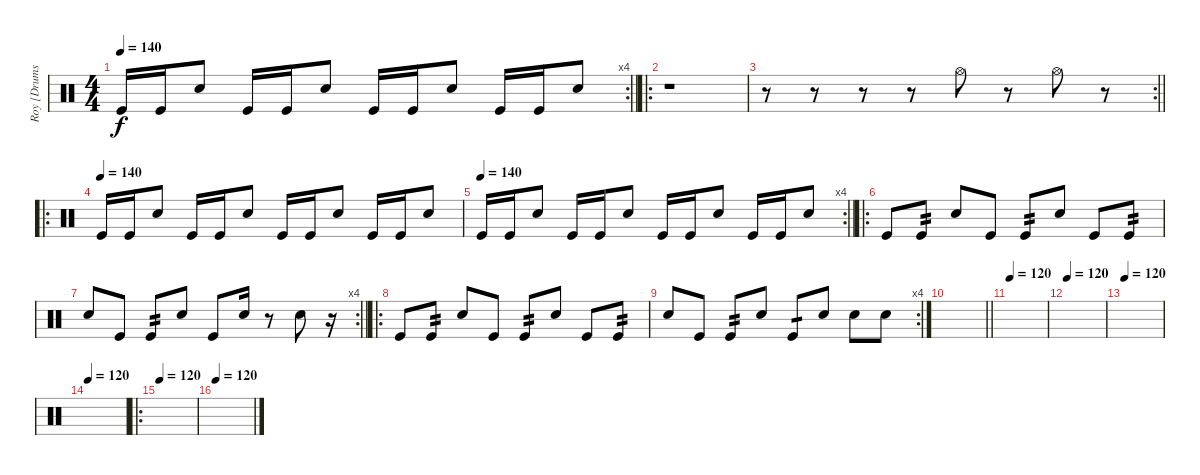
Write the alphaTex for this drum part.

\track ("Roy [Drums]" "Roy [Drums") {instrument percussion}
\staff {score}
\articulation defaults
\rc 4
\ts (4 4)
\tempo 140
\clef neutral
\barLineRight lightlight
\ks c "Kick (hit)".16{dy f} "Kick (hit)".16 "Electric Snare (hit)".8 "Kick (hit)".16 "Kick (hit)".16 "Electric Snare (hit)".8 "Kick (hit)".16 "Kick (hit)".16 "Electric Snare (hit)".8 "Kick (hit)".16 "Kick (hit)".16 "Electric Snare (hit)".8
|
\ro
\section ("" "")
r.1 |
\rc 2
\barLineRight lightlight
r.8 r.8 r.8 r.8 "Hi-Hat (open)".8 r.8 "Hi-Hat (open)".8 r.8 |
\ro
\section ("" "")
\tempo (140)
"Kick (hit)".16 "Kick (hit)".16 "Electric Snare (hit)".8 "Kick (hit)".16 "Kick (hit)".16 "Electric Snare (hit)".8 "Kick (hit)".16 "Kick (hit)".16 "Electric Snare (hit)".8 "Kick (hit)".16 "Kick (hit)".16 "Electric Snare (hit)".8 |
\rc 4
\tempo 140
\barLineRight lightlight "Kick (hit)".16 "Kick (hit)".16 "Electric Snare (hit)".8 "Kick (hit)".16 "Kick (hit)".16 "Electric Snare (hit)".8 "Kick (hit)".16 "Kick (hit)".16 "Electric Snare (hit)".8 "Kick (hit)".16 "Kick (hit)".16 "Electric Snare (hit)".8
|
\ro
\section ("" "")
"Kick (hit)".8 "Kick (hit)".8{tp 2} "Electric Snare (hit)".8 "Kick (hit)".8 "Kick (hit)".8{tp 2} "Electric Snare (hit)".8 "Kick (hit)".8 "Kick (hit)".8{tp 2} |
\rc 4
\barLineRight lightlight "Electric Snare (hit)".8 "Kick (hit)".8 "Kick (hit)".8{tp 2} "Electric Snare (hit)".8 "Kick (hit)".8 "Electric Snare (hit)".16
r.8 "Electric Snare (hit)".8 r.16 |
\ro
\section ("" "")
"Kick (hit)".8 "Kick (hit)".8{tp 2} "Electric Snare (hit)".8 "Kick (hit)".8 "Kick (hit)".8{tp 2} "Electric Snare (hit)".8 "Kick (hit)".8 "Kick (hit)".8{tp 2} |
\rc 4 "Electric Snare (hit)".8 "Kick (hit)".8 "Kick (hit)".8{tp 2} "Electric Snare (hit)".8 "Kick (hit)".8{tp 1} "Electric Snare (hit)".8 "Electric Snare (hit)".8 "Electric Snare (hit)".8
|
\barLineRight lightlight
|
\section ("" "")
\tempo 120
|
\tempo 120
|
\tempo 120
|
\tempo 120
|
\ro
\tempo 120
|
\tempo 120
